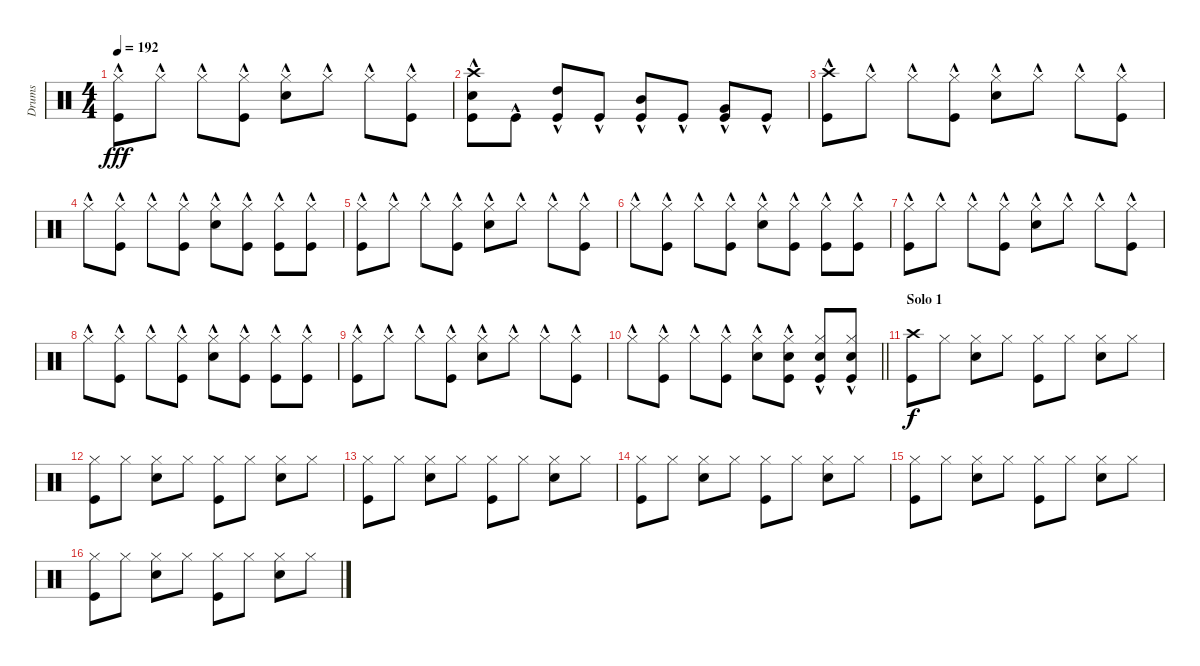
\track ("Drums" "Drums") {instrument percussion}
\staff {score}
\articulation defaults
\ts (4 4)
\tempo 192
\clef neutral
\ks c
("Kick (hit)"{hac} "Hi-Hat (closed)"{hac}).8{dy fff} "Hi-Hat (closed)"{hac}.8 "Hi-Hat (closed)"{hac}.8 ("Kick (hit)"{hac} "Hi-Hat (closed)"{hac}).8 ("Snare (hit) 2"{hac} "Hi-Hat (closed)"{hac}).8 "Hi-Hat (closed)"{hac}.8 "Hi-Hat (closed)"{hac}.8 ("Kick (hit)"{hac} "Hi-Hat (closed)"{hac}).8 |
("Crash high (hit)"{hac} "Snare (hit) 2"{hac} "Kick (hit)"{hac}).8 "Kick (hit)"{hac}.8 ("High Tom (hit)"{hac} "Kick (hit)"{hac}).8 "Kick (hit)"{hac}.8 ("Mid Tom (hit)"{hac} "Kick (hit)"{hac}).8 "Kick (hit)"{hac}.8 ("Very Low Tom (hit)"{hac} "Kick (hit)"{hac}).8 "Kick (hit)"{hac}.8 |
("Crash high (hit)" "Kick (hit)"{hac}).8 "Hi-Hat (closed)"{hac}.8 "Hi-Hat (closed)"{hac}.8 ("Kick (hit)"{hac} "Hi-Hat (closed)"{hac}).8 ("Snare (hit) 2"{hac} "Hi-Hat (closed)"{hac}).8 "Hi-Hat (closed)"{hac}.8 "Hi-Hat (closed)"{hac}.8 ("Kick (hit)"{hac} "Hi-Hat (closed)"{hac}).8 |
"Hi-Hat (closed)"{hac}.8 ("Kick (hit)"{hac} "Hi-Hat (closed)"{hac}).8 "Hi-Hat (closed)"{hac}.8 ("Kick (hit)"{hac} "Hi-Hat (closed)"{hac}).8 ("Snare (hit) 2"{hac} "Hi-Hat (closed)"{hac}).8 ("Kick (hit)"{hac} "Hi-Hat (closed)"{hac}).8 ("Kick (hit)" "Hi-Hat (closed)"{hac}).8 ("Kick (hit)" "Hi-Hat (closed)"{hac}).8 |
("Kick (hit)"{hac} "Hi-Hat (closed)"{hac}).8 "Hi-Hat (closed)"{hac}.8 "Hi-Hat (closed)"{hac}.8 ("Kick (hit)"{hac} "Hi-Hat (closed)"{hac}).8 ("Snare (hit) 2"{hac} "Hi-Hat (closed)"{hac}).8 "Hi-Hat (closed)"{hac}.8 "Hi-Hat (closed)"{hac}.8 ("Kick (hit)"{hac} "Hi-Hat (closed)"{hac}).8 |
"Hi-Hat (closed)"{hac}.8 ("Kick (hit)"{hac} "Hi-Hat (closed)"{hac}).8 "Hi-Hat (closed)"{hac}.8 ("Kick (hit)"{hac} "Hi-Hat (closed)"{hac}).8 ("Snare (hit) 2"{hac} "Hi-Hat (closed)"{hac}).8 ("Kick (hit)"{hac} "Hi-Hat (closed)"{hac}).8 ("Kick (hit)" "Hi-Hat (closed)"{hac}).8 ("Kick (hit)" "Hi-Hat (closed)"{hac}).8 |
("Kick (hit)"{hac} "Hi-Hat (closed)"{hac}).8 "Hi-Hat (closed)"{hac}.8 "Hi-Hat (closed)"{hac}.8 ("Kick (hit)"{hac} "Hi-Hat (closed)"{hac}).8 ("Snare (hit) 2"{hac} "Hi-Hat (closed)"{hac}).8 "Hi-Hat (closed)"{hac}.8 "Hi-Hat (closed)"{hac}.8 ("Kick (hit)"{hac} "Hi-Hat (closed)"{hac}).8 |
"Hi-Hat (closed)"{hac}.8 ("Kick (hit)"{hac} "Hi-Hat (closed)"{hac}).8 "Hi-Hat (closed)"{hac}.8 ("Kick (hit)"{hac} "Hi-Hat (closed)"{hac}).8 ("Snare (hit) 2"{hac} "Hi-Hat (closed)"{hac}).8 ("Kick (hit)"{hac} "Hi-Hat (closed)"{hac}).8 ("Kick (hit)" "Hi-Hat (closed)"{hac}).8 ("Kick (hit)" "Hi-Hat (closed)"{hac}).8 |
("Kick (hit)"{hac} "Hi-Hat (closed)"{hac}).8 "Hi-Hat (closed)"{hac}.8 "Hi-Hat (closed)"{hac}.8 ("Kick (hit)"{hac} "Hi-Hat (closed)"{hac}).8 ("Snare (hit) 2"{hac} "Hi-Hat (closed)"{hac}).8 "Hi-Hat (closed)"{hac}.8 "Hi-Hat (closed)"{hac}.8 ("Kick (hit)"{hac} "Hi-Hat (closed)"{hac}).8 |
\barLineRight lightlight "Hi-Hat (closed)"{hac}.8
("Kick (hit)"{hac} "Hi-Hat (closed)"{hac}).8 "Hi-Hat (closed)"{hac}.8 ("Kick (hit)"{hac} "Hi-Hat (closed)"{hac}).8 ("Snare (hit) 2"{hac} "Hi-Hat (closed)"{hac}).8 ("Snare (hit) 2" "Kick (hit)"{hac} "Hi-Hat (closed)"{hac}).8 ("Snare (hit) 2" "Kick (hit)" "Hi-Hat (closed)"{hac}).8 ("Snare (hit) 2" "Kick (hit)" "Hi-Hat (closed)"{hac}).8 |
\section ("" "Solo 1")
("Crash high (hit)" "Kick (hit)").8{dy f} "Hi-Hat (closed)".8 ("Hi-Hat (closed)" "Snare (hit) 2").8 "Hi-Hat (closed)".8 ("Hi-Hat (closed)" "Kick (hit)").8 "Hi-Hat (closed)".8 ("Hi-Hat (closed)" "Snare (hit) 2").8 "Hi-Hat (closed)".8 |
("Hi-Hat (closed)" "Kick (hit)").8 "Hi-Hat (closed)".8 ("Hi-Hat (closed)" "Snare (hit) 2").8 "Hi-Hat (closed)".8 ("Hi-Hat (closed)" "Kick (hit)").8 "Hi-Hat (closed)".8 ("Hi-Hat (closed)" "Snare (hit) 2").8 "Hi-Hat (closed)".8 |
("Hi-Hat (closed)" "Kick (hit)").8 "Hi-Hat (closed)".8 ("Hi-Hat (closed)" "Snare (hit) 2").8 "Hi-Hat (closed)".8 ("Hi-Hat (closed)" "Kick (hit)").8 "Hi-Hat (closed)".8 ("Hi-Hat (closed)" "Snare (hit) 2").8 "Hi-Hat (closed)".8 |
("Hi-Hat (closed)" "Kick (hit)").8 "Hi-Hat (closed)".8 ("Hi-Hat (closed)" "Snare (hit) 2").8 "Hi-Hat (closed)".8 ("Hi-Hat (closed)" "Kick (hit)").8 "Hi-Hat (closed)".8 ("Hi-Hat (closed)" "Snare (hit) 2").8 "Hi-Hat (closed)".8 |
("Hi-Hat (closed)" "Kick (hit)").8 "Hi-Hat (closed)".8 ("Hi-Hat (closed)" "Snare (hit) 2").8 "Hi-Hat (closed)".8 ("Hi-Hat (closed)" "Kick (hit)").8 "Hi-Hat (closed)".8 ("Hi-Hat (closed)" "Snare (hit) 2").8 "Hi-Hat (closed)".8 |
("Hi-Hat (closed)" "Kick (hit)").8 "Hi-Hat (closed)".8 ("Hi-Hat (closed)" "Snare (hit) 2").8 "Hi-Hat (closed)".8 ("Hi-Hat (closed)" "Kick (hit)").8 "Hi-Hat (closed)".8 ("Hi-Hat (closed)" "Snare (hit) 2").8 "Hi-Hat (closed)".8
